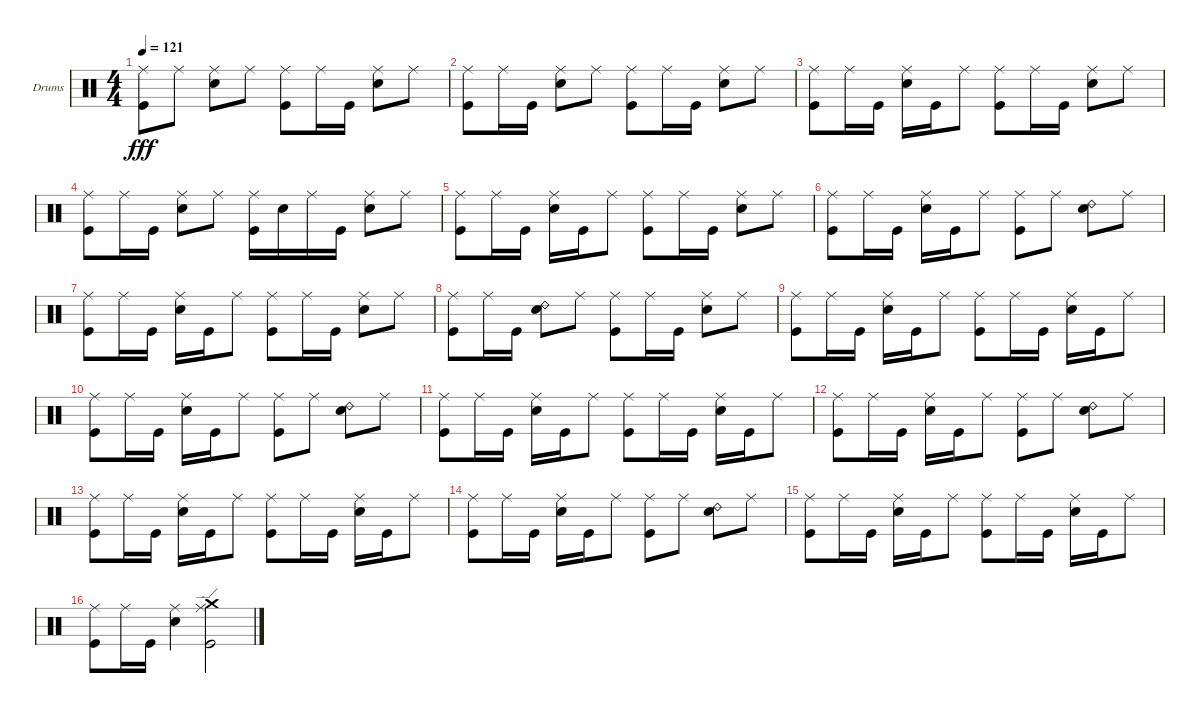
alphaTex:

\bracketExtendMode groupsimilarinstruments
\firstSystemTrackNameOrientation horizontal
\otherSystemsTrackNameOrientation horizontal
\track ("Drumkit" "Drums") {instrument percussion}
\staff {score}
\articulation defaults
\ts (4 4)
\tempo 121
\clef neutral
\ks c
("Kick (hit)" "Ride (middle)").8{dy fff} "Ride (middle)".8 ("Snare (hit) 2" "Ride (middle)").8 "Ride (middle)".8 ("Kick (hit)" "Ride (middle)").8 "Ride (middle)".16 "Kick (hit)".16 ("Snare (hit) 2" "Ride (middle)").8 "Ride (middle)".8 |
("Kick (hit)" "Ride (middle)").8 "Ride (middle)".16 "Kick (hit)".16 ("Snare (hit) 2" "Ride (middle)").8 "Ride (middle)".8 ("Kick (hit)" "Ride (middle)").8 "Ride (middle)".16 "Kick (hit)".16 ("Snare (hit) 2" "Ride (middle)").8 "Ride (middle)".8 |
("Kick (hit)" "Ride (middle)").8 "Ride (middle)".16 "Kick (hit)".16 ("Snare (hit) 2" "Ride (middle)").16 "Kick (hit)".16 "Ride (middle)".8 ("Kick (hit)" "Ride (middle)").8 "Ride (middle)".16 "Kick (hit)".16 ("Snare (hit) 2" "Ride (middle)").8 "Ride (middle)".8 |
("Kick (hit)" "Ride (middle)").8 "Ride (middle)".16 "Kick (hit)".16 ("Snare (hit) 2" "Ride (middle)").8 "Ride (middle)".8 ("Kick (hit)" "Ride (middle)").16 "Snare (hit) 2".16 "Ride (middle)".16 "Kick (hit)".16 ("Snare (hit) 2" "Ride (middle)").8 "Ride (middle)".8 |
("Kick (hit)" "Ride (middle)").8 "Ride (middle)".16 "Kick (hit)".16 ("Snare (hit) 2" "Ride (middle)").16 "Kick (hit)".16 "Ride (middle)".8 ("Kick (hit)" "Ride (middle)").8 "Ride (middle)".16 "Kick (hit)".16 ("Snare (hit) 2" "Ride (middle)").8 "Ride (middle)".8 |
("Kick (hit)" "Ride (middle)").8 "Ride (middle)".16 "Kick (hit)".16 ("Snare (hit) 2" "Ride (middle)").16 "Kick (hit)".16 "Ride (middle)".8 ("Kick (hit)" "Ride (middle)").8 "Ride (middle)".8 ("Snare (hit) 2" "Ride (bell) 2").8 "Ride (middle)".8 |
("Kick (hit)" "Ride (middle)").8 "Ride (middle)".16 "Kick (hit)".16 ("Snare (hit) 2" "Ride (middle)").16 "Kick (hit)".16 "Ride (middle)".8 ("Kick (hit)" "Ride (middle)").8 "Ride (middle)".16 "Kick (hit)".16 ("Snare (hit) 2" "Ride (middle)").8 "Ride (middle)".8 |
("Kick (hit)" "Ride (middle)").8 "Ride (middle)".16 "Kick (hit)".16 ("Snare (hit) 2" "Ride (bell) 2").8 "Ride (middle)".8 ("Kick (hit)" "Ride (middle)").8 "Ride (middle)".16 "Kick (hit)".16 ("Snare (hit) 2" "Ride (middle)").8 "Ride (middle)".8 |
("Kick (hit)" "Ride (middle)").8 "Ride (middle)".16 "Kick (hit)".16 ("Snare (hit) 2" "Ride (middle)").16 "Kick (hit)".16 "Ride (middle)".8 ("Kick (hit)" "Ride (middle)").8 "Ride (middle)".16 "Kick (hit)".16 ("Snare (hit) 2" "Ride (middle)").16 "Kick (hit)".16 "Ride (middle)".8 |
("Kick (hit)" "Ride (middle)").8 "Ride (middle)".16 "Kick (hit)".16 ("Snare (hit) 2" "Ride (middle)").16 "Kick (hit)".16 "Ride (middle)".8 ("Kick (hit)" "Ride (middle)").8 "Ride (middle)".8 ("Snare (hit) 2" "Ride (bell) 2").8 "Ride (middle)".8 |
("Kick (hit)" "Ride (middle)").8 "Ride (middle)".16 "Kick (hit)".16 ("Snare (hit) 2" "Ride (middle)").16 "Kick (hit)".16 "Ride (middle)".8 ("Kick (hit)" "Ride (middle)").8 "Ride (middle)".16 "Kick (hit)".16 ("Snare (hit) 2" "Ride (middle)").16 "Kick (hit)".16 "Ride (middle)".8 |
("Kick (hit)" "Ride (middle)").8 "Ride (middle)".16 "Kick (hit)".16 ("Snare (hit) 2" "Ride (middle)").16 "Kick (hit)".16 "Ride (middle)".8 ("Kick (hit)" "Ride (middle)").8 "Ride (middle)".8 ("Snare (hit) 2" "Ride (bell) 2").8 "Ride (middle)".8 |
("Kick (hit)" "Ride (middle)").8 "Ride (middle)".16 "Kick (hit)".16 ("Snare (hit) 2" "Ride (middle)").16 "Kick (hit)".16 "Ride (middle)".8 ("Kick (hit)" "Ride (middle)").8 "Ride (middle)".16 "Kick (hit)".16 ("Snare (hit) 2" "Ride (middle)").16 "Kick (hit)".16 "Ride (middle)".8 |
("Kick (hit)" "Ride (middle)").8 "Ride (middle)".16 "Kick (hit)".16 ("Snare (hit) 2" "Ride (middle)").16 "Kick (hit)".16 "Ride (middle)".8 ("Kick (hit)" "Ride (middle)").8 "Ride (middle)".8 ("Snare (hit) 2" "Ride (bell) 2").8 "Ride (middle)".8 |
("Kick (hit)" "Ride (middle)").8 "Ride (middle)".16 "Kick (hit)".16 ("Snare (hit) 2" "Ride (middle)").16 "Kick (hit)".16 "Ride (middle)".8 ("Kick (hit)" "Ride (middle)").8 "Ride (middle)".16 "Kick (hit)".16 ("Snare (hit) 2" "Ride (middle)").16 "Kick (hit)".16 "Ride (middle)".8 |
("Kick (hit)" "Ride (middle)").8 "Ride (middle)".16 "Kick (hit)".16 ("Snare (hit) 2" "Ride (middle)").4 ("Kick (hit)" "Crash medium (hit)" "Ride (edge)").2
